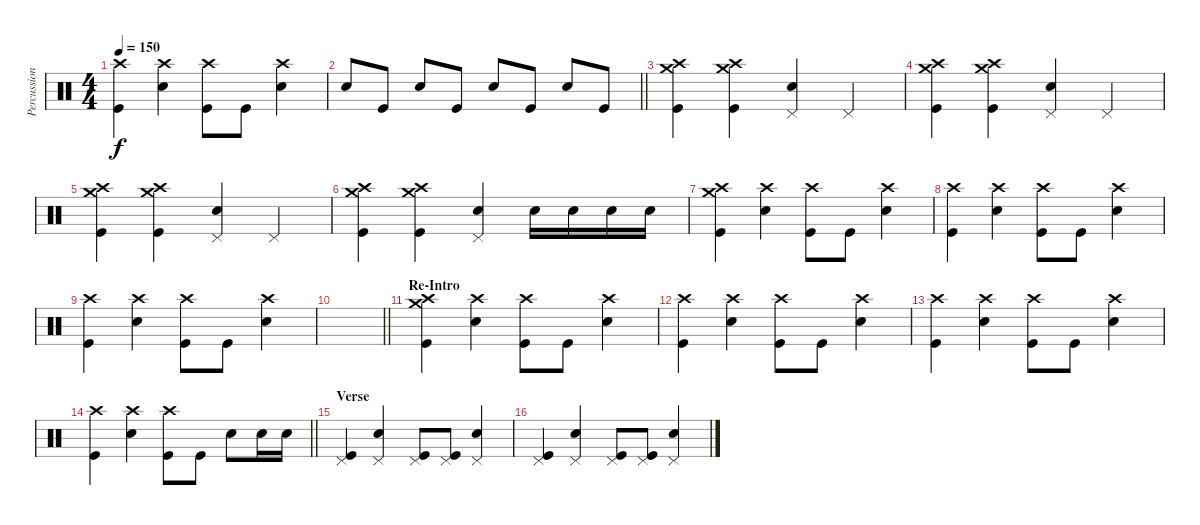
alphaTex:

\track ("Percussion" "Percussion") {instrument percussion}
\staff {score}
\articulation defaults
\ts (4 4)
\tempo 150
\clef neutral
\ks c
("Crash high (hit)" "Kick (hit)").4{dy f} ("Crash high (hit)" "Electric Snare (hit)").4 ("Crash high (hit)" "Kick (hit)").8 "Kick (hit)".8 ("Crash high (hit)" "Electric Snare (hit)").4 |
\barLineRight lightlight "Electric Snare (hit)".8 "Kick (hit)".8 "Electric Snare (hit)".8 "Kick (hit)".8 "Electric Snare (hit)".8 "Kick (hit)".8 "Electric Snare (hit)".8 "Kick (hit)".8
|
("Crash high (hit)" "Crash medium (hit)" "Kick (hit)").4 ("Crash high (hit)" "Crash medium (hit)" "Kick (hit)").4 ("Pedal Hi-Hat (hit)" "Electric Snare (hit)").4 "Pedal Hi-Hat (hit)".4 |
("Crash high (hit)" "Crash medium (hit)" "Kick (hit)").4 ("Crash high (hit)" "Crash medium (hit)" "Kick (hit)").4 ("Pedal Hi-Hat (hit)" "Electric Snare (hit)").4 "Pedal Hi-Hat (hit)".4 |
("Crash high (hit)" "Crash medium (hit)" "Kick (hit)").4 ("Crash high (hit)" "Crash medium (hit)" "Kick (hit)").4 ("Pedal Hi-Hat (hit)" "Electric Snare (hit)").4 "Pedal Hi-Hat (hit)".4 |
("Crash high (hit)" "Crash medium (hit)" "Kick (hit)").4 ("Crash high (hit)" "Crash medium (hit)" "Kick (hit)").4 ("Pedal Hi-Hat (hit)" "Electric Snare (hit)").4 "Electric Snare (hit)".16 "Electric Snare (hit)".16 "Electric Snare (hit)".16 "Electric Snare (hit)".16 |
("Crash high (hit)" "Crash medium (hit)" "Kick (hit)").4 ("Crash high (hit)" "Electric Snare (hit)").4 ("Crash high (hit)" "Kick (hit)").8 "Kick (hit)".8 ("Crash high (hit)" "Electric Snare (hit)").4 |
("Crash high (hit)" "Kick (hit)").4 ("Crash high (hit)" "Electric Snare (hit)").4 ("Crash high (hit)" "Kick (hit)").8 "Kick (hit)".8 ("Crash high (hit)" "Electric Snare (hit)").4 |
("Crash high (hit)" "Kick (hit)").4 ("Crash high (hit)" "Electric Snare (hit)").4 ("Crash high (hit)" "Kick (hit)").8 "Kick (hit)".8 ("Crash high (hit)" "Electric Snare (hit)").4 |
\barLineRight lightlight
|
\section ("" "Re-Intro")
("Crash high (hit)" "Crash medium (hit)" "Kick (hit)").4 ("Crash high (hit)" "Electric Snare (hit)").4 ("Crash high (hit)" "Kick (hit)").8 "Kick (hit)".8 ("Crash high (hit)" "Electric Snare (hit)").4 |
("Crash high (hit)" "Kick (hit)").4 ("Crash high (hit)" "Electric Snare (hit)").4 ("Crash high (hit)" "Kick (hit)").8 "Kick (hit)".8 ("Crash high (hit)" "Electric Snare (hit)").4 |
("Crash high (hit)" "Kick (hit)").4 ("Crash high (hit)" "Electric Snare (hit)").4 ("Crash high (hit)" "Kick (hit)").8 "Kick (hit)".8 ("Crash high (hit)" "Electric Snare (hit)").4 |
\barLineRight lightlight
("Crash high (hit)" "Kick (hit)").4 ("Crash high (hit)" "Electric Snare (hit)").4 ("Crash high (hit)" "Kick (hit)").8 "Kick (hit)".8 "Electric Snare (hit)".8 "Electric Snare (hit)".16 "Electric Snare (hit)".16 |
\section ("" "Verse")
("Pedal Hi-Hat (hit)" "Kick (hit)").4 ("Pedal Hi-Hat (hit)" "Electric Snare (hit)").4 ("Pedal Hi-Hat (hit)" "Kick (hit)").8 ("Pedal Hi-Hat (hit)" "Kick (hit)").8 ("Pedal Hi-Hat (hit)" "Electric Snare (hit)").4 |
("Pedal Hi-Hat (hit)" "Kick (hit)").4 ("Pedal Hi-Hat (hit)" "Electric Snare (hit)").4 ("Pedal Hi-Hat (hit)" "Kick (hit)").8 ("Pedal Hi-Hat (hit)" "Kick (hit)").8 ("Pedal Hi-Hat (hit)" "Electric Snare (hit)").4
